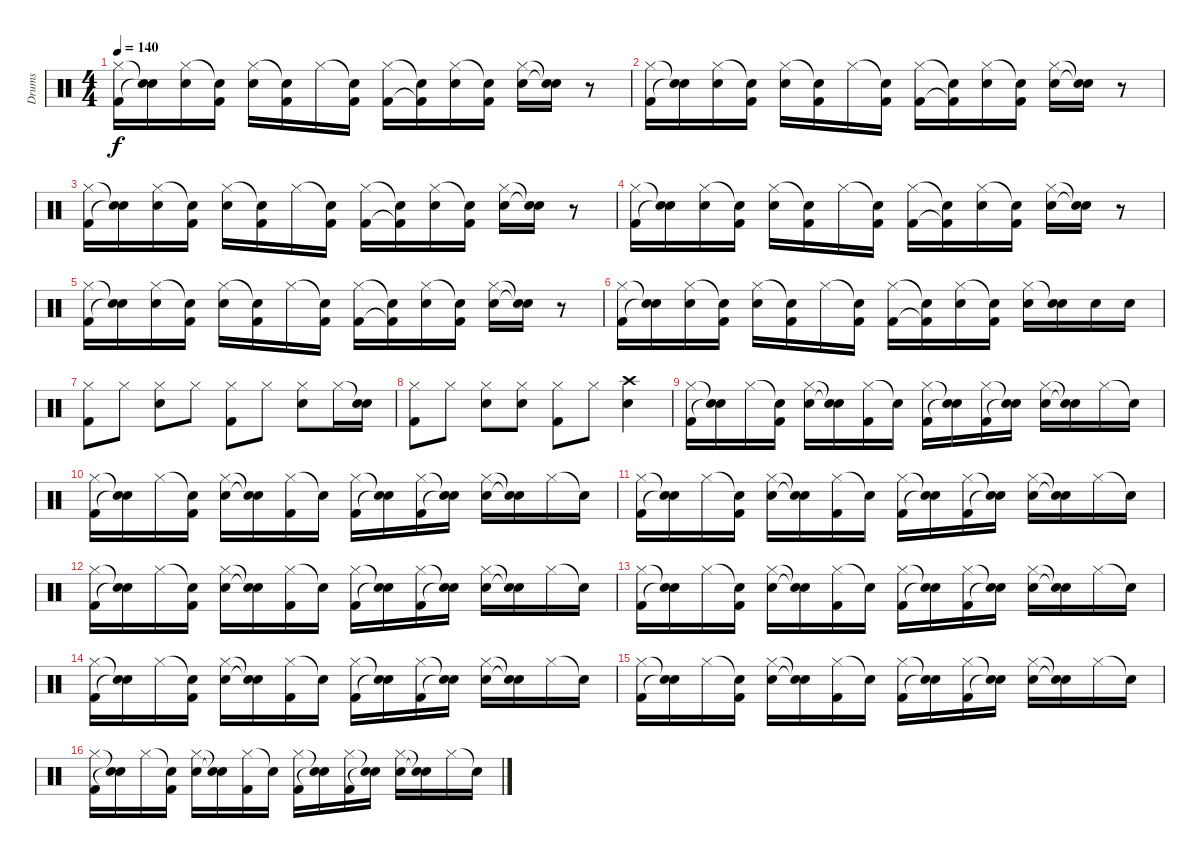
\track ("Drums" "Drums") {instrument percussion}
\staff {score}
\articulation defaults
\ts (4 4)
\tempo 140
\clef neutral
\ks c
("Hi-Hat (closed)" "Kick (hit) 2").16{dy f} ("Snare (hit)"{t} "Snare (hit)"{t}).16 ("Hi-Hat (closed)" "Snare (hit) 2").16 ("Snare (hit)"{t} "Kick (hit) 2").16 ("Hi-Hat (closed)" "Snare (hit) 2").16 ("Snare (hit)"{t} "Kick (hit) 2").16 "Hi-Hat (closed)".16 ("Snare (hit)"{t} "Kick (hit) 2").16 ("Hi-Hat (closed)" "Kick (hit) 2").16 ("Snare (hit)"{t} "Kick (hit) 2"{t}).16 ("Hi-Hat (closed)" "Snare (hit) 2").16 ("Snare (hit)"{t} "Kick (hit) 2").16 ("Hi-Hat (closed)" "Snare (hit) 2").16 ("Snare (hit)"{t} "Snare (hit)"{t}).16 r.8 |
("Hi-Hat (closed)" "Kick (hit) 2").16 ("Snare (hit)"{t} "Snare (hit)"{t}).16 ("Hi-Hat (closed)" "Snare (hit) 2").16 ("Snare (hit)"{t} "Kick (hit) 2").16 ("Hi-Hat (closed)" "Snare (hit) 2").16 ("Snare (hit)"{t} "Kick (hit) 2").16 "Hi-Hat (closed)".16 ("Snare (hit)"{t} "Kick (hit) 2").16 ("Hi-Hat (closed)" "Kick (hit) 2").16 ("Snare (hit)"{t} "Kick (hit) 2"{t}).16 ("Hi-Hat (closed)" "Snare (hit) 2").16 ("Snare (hit)"{t} "Kick (hit) 2").16 ("Hi-Hat (closed)" "Snare (hit) 2").16 ("Snare (hit)"{t} "Snare (hit)"{t}).16 r.8 |
("Hi-Hat (closed)" "Kick (hit) 2").16 ("Snare (hit)"{t} "Snare (hit)"{t}).16 ("Hi-Hat (closed)" "Snare (hit) 2").16 ("Snare (hit)"{t} "Kick (hit) 2").16 ("Hi-Hat (closed)" "Snare (hit) 2").16 ("Snare (hit)"{t} "Kick (hit) 2").16 "Hi-Hat (closed)".16 ("Snare (hit)"{t} "Kick (hit) 2").16 ("Hi-Hat (closed)" "Kick (hit) 2").16 ("Snare (hit)"{t} "Kick (hit) 2"{t}).16 ("Hi-Hat (closed)" "Snare (hit) 2").16 ("Snare (hit)"{t} "Kick (hit) 2").16 ("Hi-Hat (closed)" "Snare (hit) 2").16 ("Snare (hit)"{t} "Snare (hit)"{t}).16 r.8 |
("Hi-Hat (closed)" "Kick (hit) 2").16 ("Snare (hit)"{t} "Snare (hit)"{t}).16 ("Hi-Hat (closed)" "Snare (hit) 2").16 ("Snare (hit)"{t} "Kick (hit) 2").16 ("Hi-Hat (closed)" "Snare (hit) 2").16 ("Snare (hit)"{t} "Kick (hit) 2").16 "Hi-Hat (closed)".16 ("Snare (hit)"{t} "Kick (hit) 2").16 ("Hi-Hat (closed)" "Kick (hit) 2").16 ("Snare (hit)"{t} "Kick (hit) 2"{t}).16 ("Hi-Hat (closed)" "Snare (hit) 2").16 ("Snare (hit)"{t} "Kick (hit) 2").16 ("Hi-Hat (closed)" "Snare (hit) 2").16 ("Snare (hit)"{t} "Snare (hit)"{t}).16 r.8 |
("Hi-Hat (closed)" "Kick (hit) 2").16 ("Snare (hit)"{t} "Snare (hit)"{t}).16 ("Hi-Hat (closed)" "Snare (hit) 2").16 ("Snare (hit)"{t} "Kick (hit) 2").16 ("Hi-Hat (closed)" "Snare (hit) 2").16 ("Snare (hit)"{t} "Kick (hit) 2").16 "Hi-Hat (closed)".16 ("Snare (hit)"{t} "Kick (hit) 2").16 ("Hi-Hat (closed)" "Kick (hit) 2").16 ("Snare (hit)"{t} "Kick (hit) 2"{t}).16 ("Hi-Hat (closed)" "Snare (hit) 2").16 ("Snare (hit)"{t} "Kick (hit) 2").16 ("Hi-Hat (closed)" "Snare (hit) 2").16 ("Snare (hit)"{t} "Snare (hit)"{t}).16 r.8 |
("Hi-Hat (closed)" "Kick (hit) 2").16 ("Snare (hit)"{t} "Snare (hit)"{t}).16 ("Hi-Hat (closed)" "Snare (hit) 2").16 ("Snare (hit)"{t} "Kick (hit) 2").16 ("Hi-Hat (closed)" "Snare (hit) 2").16 ("Snare (hit)"{t} "Kick (hit) 2").16 "Hi-Hat (closed)".16 ("Snare (hit)"{t} "Kick (hit) 2").16 ("Hi-Hat (closed)" "Kick (hit) 2").16 ("Snare (hit)"{t} "Kick (hit) 2"{t}).16 ("Hi-Hat (closed)" "Snare (hit) 2").16 ("Snare (hit)"{t} "Kick (hit) 2").16 ("Hi-Hat (closed)" "Snare (hit) 2").16 ("Snare (hit)"{t} "Snare (hit) 2").16 "Snare (hit) 2".16 "Snare (hit) 2".16 |
("Hi-Hat (closed)" "Kick (hit) 2").8 "Hi-Hat (closed)".8 ("Hi-Hat (closed)" "Snare (hit) 2").8 "Hi-Hat (closed)".8 ("Hi-Hat (closed)" "Kick (hit) 2").8 "Hi-Hat (closed)".8 ("Hi-Hat (closed)" "Snare (hit) 2").8 "Hi-Hat (closed)".16 ("Snare (hit)"{t} "Snare (hit) 2").16 |
("Hi-Hat (closed)" "Kick (hit) 2").8 "Hi-Hat (closed)".8 ("Hi-Hat (closed)" "Snare (hit) 2").8 ("Hi-Hat (closed)" "Snare (hit) 2").8 ("Hi-Hat (closed)" "Kick (hit) 2").8 "Hi-Hat (closed)".8 ("Crash high (hit)" "Snare (hit) 2").4 |
("Hi-Hat (closed)" "Kick (hit) 2").16 ("Snare (hit)"{t} "Snare (hit)"{t}).16 "Hi-Hat (closed)".16 ("Snare (hit)"{t} "Kick (hit) 2").16 ("Hi-Hat (closed)" "Snare (hit) 2").16 ("Snare (hit)"{t} "Snare (hit)"{t}).16 ("Hi-Hat (closed)" "Kick (hit) 2").16 "Snare (hit)"{t}.16 ("Hi-Hat (closed)" "Kick (hit) 2").16 ("Snare (hit)"{t} "Snare (hit)"{t}).16 ("Hi-Hat (closed)" "Kick (hit) 2").16 ("Snare (hit)"{t} "Snare (hit)"{t}).16 ("Hi-Hat (closed)" "Snare (hit) 2").16 ("Snare (hit)"{t} "Snare (hit)"{t}).16 "Hi-Hat (closed)".16 "Snare (hit)"{t}.16 |
("Hi-Hat (closed)" "Kick (hit) 2").16 ("Snare (hit)"{t} "Snare (hit)"{t}).16 "Hi-Hat (closed)".16 ("Snare (hit)"{t} "Kick (hit) 2").16 ("Hi-Hat (closed)" "Snare (hit) 2").16 ("Snare (hit)"{t} "Snare (hit)"{t}).16 ("Hi-Hat (closed)" "Kick (hit) 2").16 "Snare (hit)"{t}.16 ("Hi-Hat (closed)" "Kick (hit) 2").16 ("Snare (hit)"{t} "Snare (hit)"{t}).16 ("Hi-Hat (closed)" "Kick (hit) 2").16 ("Snare (hit)"{t} "Snare (hit)"{t}).16 ("Hi-Hat (closed)" "Snare (hit) 2").16 ("Snare (hit)"{t} "Snare (hit)"{t}).16 "Hi-Hat (closed)".16 "Snare (hit)"{t}.16 |
("Hi-Hat (closed)" "Kick (hit) 2").16 ("Snare (hit)"{t} "Snare (hit)"{t}).16 "Hi-Hat (closed)".16 ("Snare (hit)"{t} "Kick (hit) 2").16 ("Hi-Hat (closed)" "Snare (hit) 2").16 ("Snare (hit)"{t} "Snare (hit)"{t}).16 ("Hi-Hat (closed)" "Kick (hit) 2").16 "Snare (hit)"{t}.16 ("Hi-Hat (closed)" "Kick (hit) 2").16 ("Snare (hit)"{t} "Snare (hit)"{t}).16 ("Hi-Hat (closed)" "Kick (hit) 2").16 ("Snare (hit)"{t} "Snare (hit)"{t}).16 ("Hi-Hat (closed)" "Snare (hit) 2").16 ("Snare (hit)"{t} "Snare (hit)"{t}).16 "Hi-Hat (closed)".16 "Snare (hit)"{t}.16 |
("Hi-Hat (closed)" "Kick (hit) 2").16 ("Snare (hit)"{t} "Snare (hit)"{t}).16 "Hi-Hat (closed)".16 ("Snare (hit)"{t} "Kick (hit) 2").16 ("Hi-Hat (closed)" "Snare (hit) 2").16 ("Snare (hit)"{t} "Snare (hit)"{t}).16 ("Hi-Hat (closed)" "Kick (hit) 2").16 "Snare (hit)"{t}.16 ("Hi-Hat (closed)" "Kick (hit) 2").16 ("Snare (hit)"{t} "Snare (hit)"{t}).16 ("Hi-Hat (closed)" "Kick (hit) 2").16 ("Snare (hit)"{t} "Snare (hit)"{t}).16 ("Hi-Hat (closed)" "Snare (hit) 2").16 ("Snare (hit)"{t} "Snare (hit)"{t}).16 "Hi-Hat (closed)".16 "Snare (hit)"{t}.16 |
("Hi-Hat (closed)" "Kick (hit) 2").16 ("Snare (hit)"{t} "Snare (hit)"{t}).16 "Hi-Hat (closed)".16 ("Snare (hit)"{t} "Kick (hit) 2").16 ("Hi-Hat (closed)" "Snare (hit) 2").16 ("Snare (hit)"{t} "Snare (hit)"{t}).16 ("Hi-Hat (closed)" "Kick (hit) 2").16 "Snare (hit)"{t}.16 ("Hi-Hat (closed)" "Kick (hit) 2").16 ("Snare (hit)"{t} "Snare (hit)"{t}).16 ("Hi-Hat (closed)" "Kick (hit) 2").16 ("Snare (hit)"{t} "Snare (hit)"{t}).16 ("Hi-Hat (closed)" "Snare (hit) 2").16 ("Snare (hit)"{t} "Snare (hit)"{t}).16 "Hi-Hat (closed)".16 "Snare (hit)"{t}.16 |
("Hi-Hat (closed)" "Kick (hit) 2").16 ("Snare (hit)"{t} "Snare (hit)"{t}).16 "Hi-Hat (closed)".16 ("Snare (hit)"{t} "Kick (hit) 2").16 ("Hi-Hat (closed)" "Snare (hit) 2").16 ("Snare (hit)"{t} "Snare (hit)"{t}).16 ("Hi-Hat (closed)" "Kick (hit) 2").16 "Snare (hit)"{t}.16 ("Hi-Hat (closed)" "Kick (hit) 2").16 ("Snare (hit)"{t} "Snare (hit)"{t}).16 ("Hi-Hat (closed)" "Kick (hit) 2").16 ("Snare (hit)"{t} "Snare (hit)"{t}).16 ("Hi-Hat (closed)" "Snare (hit) 2").16 ("Snare (hit)"{t} "Snare (hit)"{t}).16 "Hi-Hat (closed)".16 "Snare (hit)"{t}.16 |
("Hi-Hat (closed)" "Kick (hit) 2").16 ("Snare (hit)"{t} "Snare (hit)"{t}).16 "Hi-Hat (closed)".16 ("Snare (hit)"{t} "Kick (hit) 2").16 ("Hi-Hat (closed)" "Snare (hit) 2").16 ("Snare (hit)"{t} "Snare (hit)"{t}).16 ("Hi-Hat (closed)" "Kick (hit) 2").16 "Snare (hit)"{t}.16 ("Hi-Hat (closed)" "Kick (hit) 2").16 ("Snare (hit)"{t} "Snare (hit)"{t}).16 ("Hi-Hat (closed)" "Kick (hit) 2").16 ("Snare (hit)"{t} "Snare (hit)"{t}).16 ("Hi-Hat (closed)" "Snare (hit) 2").16 ("Snare (hit)"{t} "Snare (hit)"{t}).16 "Hi-Hat (closed)".16 "Snare (hit)"{t}.16 |
("Hi-Hat (closed)" "Kick (hit) 2").16 ("Snare (hit)"{t} "Snare (hit)"{t}).16 "Hi-Hat (closed)".16 ("Snare (hit)"{t} "Kick (hit) 2").16 ("Hi-Hat (closed)" "Snare (hit) 2").16 ("Snare (hit)"{t} "Snare (hit)"{t}).16 ("Hi-Hat (closed)" "Kick (hit) 2").16 "Snare (hit)"{t}.16 ("Hi-Hat (closed)" "Kick (hit) 2").16 ("Snare (hit)"{t} "Snare (hit)"{t}).16 ("Hi-Hat (closed)" "Kick (hit) 2").16 ("Snare (hit)"{t} "Snare (hit)"{t}).16 ("Hi-Hat (closed)" "Snare (hit) 2").16 ("Snare (hit)"{t} "Snare (hit)"{t}).16 "Hi-Hat (closed)".16 "Snare (hit)"{t}.16
